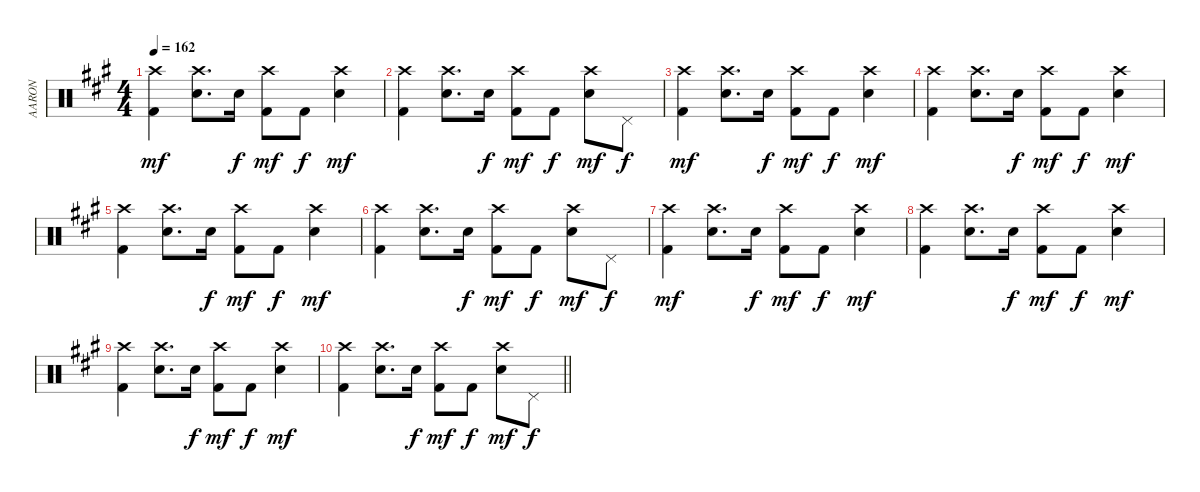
\track ("AARON" "AARON") {instrument percussion}
\staff {score}
\articulation defaults
\ts (4 4)
\tempo 162
\clef neutral
\ks a
("Crash high (hit)" "Kick (hit) 2").4{dy mf} ("Crash high (hit)" "Electric Snare (hit)").8{d} "Electric Snare (hit)".16{dy f} ("Crash high (hit)" "Kick (hit) 2").8{dy mf} "Kick (hit) 2".8{dy f} ("Crash high (hit)" "Electric Snare (hit)").4{dy mf} |
("Crash high (hit)" "Kick (hit) 2").4 ("Crash high (hit)" "Electric Snare (hit)").8{d} "Electric Snare (hit)".16{dy f} ("Crash high (hit)" "Kick (hit) 2").8{dy mf} "Kick (hit) 2".8{dy f} ("Crash high (hit)" "Electric Snare (hit)").8{dy mf} "Pedal Hi-Hat (hit)".8{dy f} |
("Crash high (hit)" "Kick (hit) 2").4{dy mf} ("Crash high (hit)" "Electric Snare (hit)").8{d} "Electric Snare (hit)".16{dy f} ("Crash high (hit)" "Kick (hit) 2").8{dy mf} "Kick (hit) 2".8{dy f} ("Crash high (hit)" "Electric Snare (hit)").4{dy mf} |
("Crash high (hit)" "Kick (hit) 2").4 ("Crash high (hit)" "Electric Snare (hit)").8{d} "Electric Snare (hit)".16{dy f} ("Crash high (hit)" "Kick (hit) 2").8{dy mf} "Kick (hit) 2".8{dy f} ("Crash high (hit)" "Electric Snare (hit)").4{dy mf} |
("Crash high (hit)" "Kick (hit) 2").4 ("Crash high (hit)" "Electric Snare (hit)").8{d} "Electric Snare (hit)".16{dy f} ("Crash high (hit)" "Kick (hit) 2").8{dy mf} "Kick (hit) 2".8{dy f} ("Crash high (hit)" "Electric Snare (hit)").4{dy mf} |
("Crash high (hit)" "Kick (hit) 2").4 ("Crash high (hit)" "Electric Snare (hit)").8{d} "Electric Snare (hit)".16{dy f} ("Crash high (hit)" "Kick (hit) 2").8{dy mf} "Kick (hit) 2".8{dy f} ("Crash high (hit)" "Electric Snare (hit)").8{dy mf} "Pedal Hi-Hat (hit)".8{dy f} |
("Crash high (hit)" "Kick (hit) 2").4{dy mf} ("Crash high (hit)" "Electric Snare (hit)").8{d} "Electric Snare (hit)".16{dy f} ("Crash high (hit)" "Kick (hit) 2").8{dy mf} "Kick (hit) 2".8{dy f} ("Crash high (hit)" "Electric Snare (hit)").4{dy mf} |
("Crash high (hit)" "Kick (hit) 2").4 ("Crash high (hit)" "Electric Snare (hit)").8{d} "Electric Snare (hit)".16{dy f} ("Crash high (hit)" "Kick (hit) 2").8{dy mf} "Kick (hit) 2".8{dy f} ("Crash high (hit)" "Electric Snare (hit)").4{dy mf} |
("Crash high (hit)" "Kick (hit) 2").4 ("Crash high (hit)" "Electric Snare (hit)").8{d} "Electric Snare (hit)".16{dy f} ("Crash high (hit)" "Kick (hit) 2").8{dy mf} "Kick (hit) 2".8{dy f} ("Crash high (hit)" "Electric Snare (hit)").4{dy mf} |
\barLineRight lightlight
("Crash high (hit)" "Kick (hit) 2").4 ("Crash high (hit)" "Electric Snare (hit)").8{d} "Electric Snare (hit)".16{dy f} ("Crash high (hit)" "Kick (hit) 2").8{dy mf} "Kick (hit) 2".8{dy f} ("Crash high (hit)" "Electric Snare (hit)").8{dy mf} "Pedal Hi-Hat (hit)".8{dy f}
